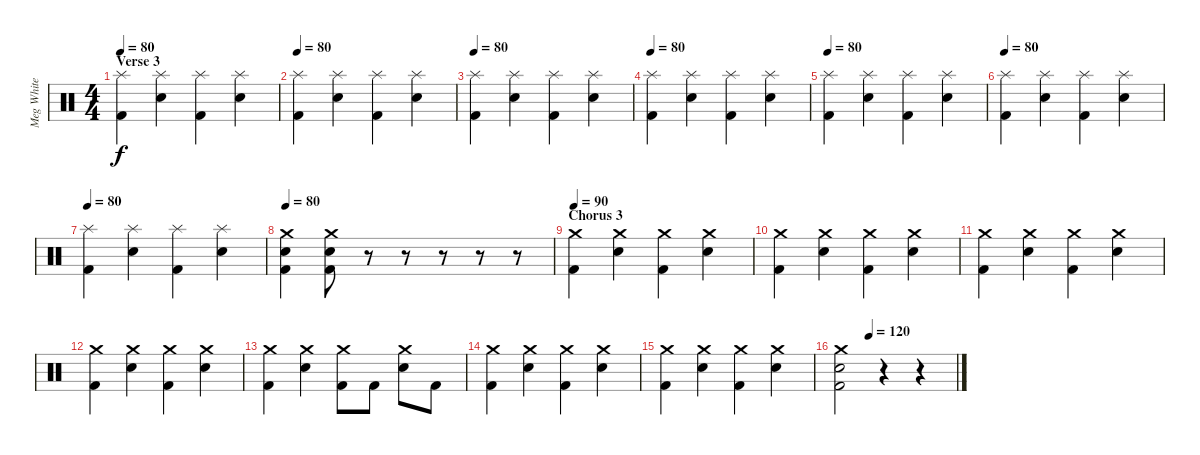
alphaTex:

\track ("Meg White - Drums" "Meg White ") {instrument percussion}
\staff {score}
\articulation defaults
\ts (4 4)
\section ("" "Verse 3")
\tempo 80
\clef neutral
\ks c
("Splash (hit)" "Kick (hit) 2").4{dy f} ("Splash (hit)" "Snare (hit) 2").4 ("Splash (hit)" "Kick (hit) 2").4 ("Splash (hit)" "Snare (hit) 2").4 |
\tempo 80
("Splash (hit)" "Kick (hit) 2").4 ("Splash (hit)" "Snare (hit) 2").4 ("Splash (hit)" "Kick (hit) 2").4 ("Splash (hit)" "Snare (hit) 2").4 |
\tempo 80
("Splash (hit)" "Kick (hit) 2").4 ("Splash (hit)" "Snare (hit) 2").4 ("Splash (hit)" "Kick (hit) 2").4 ("Splash (hit)" "Snare (hit) 2").4 |
\tempo 80
("Splash (hit)" "Kick (hit) 2").4 ("Splash (hit)" "Snare (hit) 2").4 ("Splash (hit)" "Kick (hit) 2").4 ("Splash (hit)" "Snare (hit) 2").4 |
\tempo 80
("Splash (hit)" "Kick (hit) 2").4 ("Splash (hit)" "Snare (hit) 2").4 ("Splash (hit)" "Kick (hit) 2").4 ("Splash (hit)" "Snare (hit) 2").4 |
\tempo 80
("Splash (hit)" "Kick (hit) 2").4 ("Splash (hit)" "Snare (hit) 2").4 ("Splash (hit)" "Kick (hit) 2").4 ("Splash (hit)" "Snare (hit) 2").4 |
\tempo 80
("Splash (hit)" "Kick (hit) 2").4 ("Splash (hit)" "Snare (hit) 2").4 ("Splash (hit)" "Kick (hit) 2").4 ("Splash (hit)" "Snare (hit) 2").4 |
\tempo 80
("Crash medium (hit)" "Snare (hit) 2" "Kick (hit) 2").4 ("Crash medium (hit)" "Snare (hit) 2" "Kick (hit) 2").8 r.8 r.8 r.8 r.8 r.8 |
\section ("" "Chorus 3")
\tempo 90
("Crash medium (hit)" "Kick (hit) 2").4 ("Crash medium (hit)" "Snare (hit) 2").4 ("Crash medium (hit)" "Kick (hit) 2").4 ("Crash medium (hit)" "Snare (hit) 2").4 |
("Crash medium (hit)" "Kick (hit) 2").4 ("Crash medium (hit)" "Snare (hit) 2").4 ("Crash medium (hit)" "Kick (hit) 2").4 ("Crash medium (hit)" "Snare (hit) 2").4 |
("Crash medium (hit)" "Kick (hit) 2").4 ("Crash medium (hit)" "Snare (hit) 2").4 ("Crash medium (hit)" "Kick (hit) 2").4 ("Crash medium (hit)" "Snare (hit) 2").4 |
("Crash medium (hit)" "Kick (hit) 2").4 ("Crash medium (hit)" "Snare (hit) 2").4 ("Crash medium (hit)" "Kick (hit) 2").4 ("Crash medium (hit)" "Snare (hit) 2").4 |
("Crash medium (hit)" "Kick (hit) 2").4 ("Crash medium (hit)" "Snare (hit) 2").4 ("Crash medium (hit)" "Kick (hit) 2").8 "Kick (hit) 2".8 ("Crash medium (hit)" "Snare (hit) 2").8 "Kick (hit) 2".8 |
("Crash medium (hit)" "Kick (hit) 2").4 ("Crash medium (hit)" "Snare (hit) 2").4 ("Crash medium (hit)" "Kick (hit) 2").4 ("Crash medium (hit)" "Snare (hit) 2").4 |
("Crash medium (hit)" "Kick (hit) 2").4 ("Crash medium (hit)" "Snare (hit) 2").4 ("Crash medium (hit)" "Kick (hit) 2").4 ("Crash medium (hit)" "Snare (hit) 2").4 |
\tempo (120 0.25)
("Crash medium (hit)" "Snare (hit) 2" "Kick (hit) 2").2 r.4 r.4
